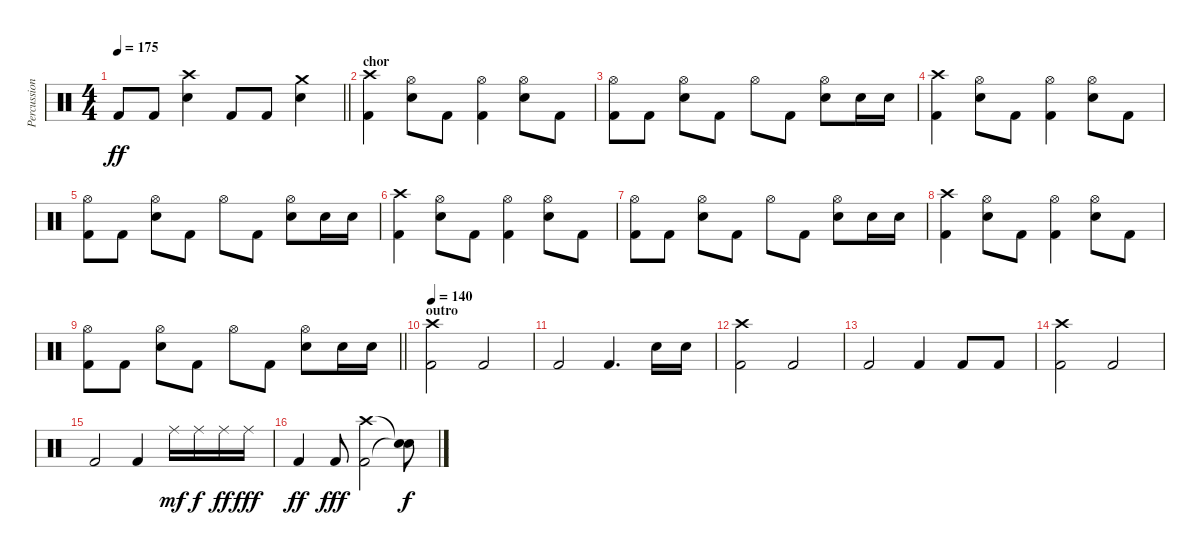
\track ("Percussion" "Percussion") {instrument percussion}
\staff {score}
\articulation defaults
\ts (4 4)
\tempo 175
\clef neutral
\barLineRight lightlight
\ks c "Kick (hit) 2".8{dy ff} "Kick (hit) 2".8
("Crash high (hit)" "Snare (hit) 2").4 "Kick (hit) 2".8 "Kick (hit) 2".8 ("Crash medium (hit)" "Snare (hit) 2").4 |
\section ("" "chor")
("Crash high (hit)" "Kick (hit) 2").4 ("Hi-Hat (open)" "Snare (hit) 2").8 "Kick (hit) 2".8 ("Hi-Hat (open)" "Kick (hit) 2").4 ("Hi-Hat (open)" "Snare (hit) 2").8 "Kick (hit) 2".8 |
("Hi-Hat (open)" "Kick (hit) 2").8 "Kick (hit) 2".8 ("Hi-Hat (open)" "Snare (hit) 2").8 "Kick (hit) 2".8 "Hi-Hat (open)".8 "Kick (hit) 2".8 ("Hi-Hat (open)" "Snare (hit) 2").8 "Snare (hit) 2".16 "Snare (hit) 2".16 |
("Crash high (hit)" "Kick (hit) 2").4 ("Hi-Hat (open)" "Snare (hit) 2").8 "Kick (hit) 2".8 ("Hi-Hat (open)" "Kick (hit) 2").4 ("Hi-Hat (open)" "Snare (hit) 2").8 "Kick (hit) 2".8 |
("Hi-Hat (open)" "Kick (hit) 2").8 "Kick (hit) 2".8 ("Hi-Hat (open)" "Snare (hit) 2").8 "Kick (hit) 2".8 "Hi-Hat (open)".8 "Kick (hit) 2".8 ("Hi-Hat (open)" "Snare (hit) 2").8 "Snare (hit) 2".16 "Snare (hit) 2".16 |
("Crash high (hit)" "Kick (hit) 2").4 ("Hi-Hat (open)" "Snare (hit) 2").8 "Kick (hit) 2".8 ("Hi-Hat (open)" "Kick (hit) 2").4 ("Hi-Hat (open)" "Snare (hit) 2").8 "Kick (hit) 2".8 |
("Hi-Hat (open)" "Kick (hit) 2").8 "Kick (hit) 2".8 ("Hi-Hat (open)" "Snare (hit) 2").8 "Kick (hit) 2".8 "Hi-Hat (open)".8 "Kick (hit) 2".8 ("Hi-Hat (open)" "Snare (hit) 2").8 "Snare (hit) 2".16 "Snare (hit) 2".16 |
("Crash high (hit)" "Kick (hit) 2").4 ("Hi-Hat (open)" "Snare (hit) 2").8 "Kick (hit) 2".8 ("Hi-Hat (open)" "Kick (hit) 2").4 ("Hi-Hat (open)" "Snare (hit) 2").8 "Kick (hit) 2".8 |
\barLineRight lightlight
("Hi-Hat (open)" "Kick (hit) 2").8 "Kick (hit) 2".8 ("Hi-Hat (open)" "Snare (hit) 2").8 "Kick (hit) 2".8 "Hi-Hat (open)".8 "Kick (hit) 2".8 ("Hi-Hat (open)" "Snare (hit) 2").8 "Snare (hit) 2".16 "Snare (hit) 2".16 |
\section ("" "outro")
\tempo 140
("Crash high (hit)" "Kick (hit) 2").2 "Kick (hit) 2".2 |
"Kick (hit) 2".2 "Kick (hit) 2".4{d} "Snare (hit) 2".16 "Snare (hit) 2".16 |
("Crash high (hit)" "Kick (hit) 2").2 "Kick (hit) 2".2 |
"Kick (hit) 2".2 "Kick (hit) 2".4 "Kick (hit) 2".8 "Kick (hit) 2".8 |
("Crash high (hit)" "Kick (hit) 2").2 "Kick (hit) 2".2 |
"Kick (hit) 2".2 "Kick (hit) 2".4 "Ride (middle)".16{dy mf} "Ride (middle)".16{dy f} "Ride (middle)".16{dy ff} "Ride (middle)".16{dy fff} |
"Kick (hit) 2".4{dy ff} "Kick (hit) 2".8{dy fff} ("Crash high (hit)" "Kick (hit) 2").2 ("Snare (hit)"{t} "Snare (hit)"{t}).8{dy f}
